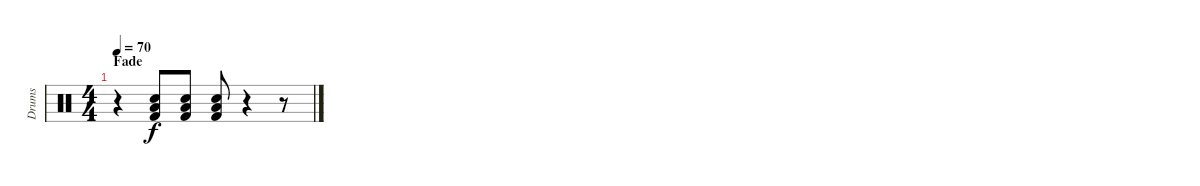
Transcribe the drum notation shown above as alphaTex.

\track ("Drums" "Drums") {instrument percussion}
\staff {score}
\articulation defaults
\ts (4 4)
\section ("" "Fade")
\tempo 70
\clef neutral
\ks c
r.4{dy f} ("Electric Snare (hit)" "Low Floor Tom (hit)" "Kick (hit) 2").8 ("Electric Snare (hit)" "Low Floor Tom (hit)" "Kick (hit) 2").8 ("Electric Snare (hit)" "Low Floor Tom (hit)" "Kick (hit) 2").8 r.4 r.8
